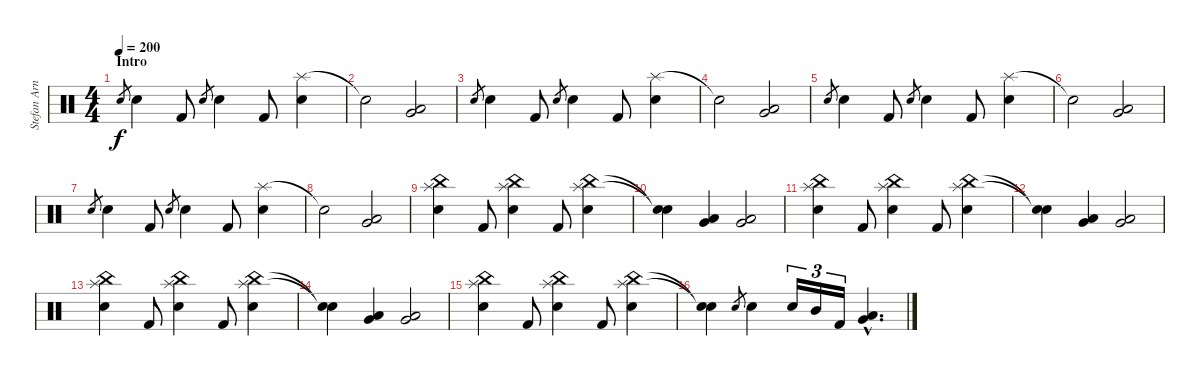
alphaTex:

\track ("Stefan Arnold" "Stefan Arn") {instrument percussion}
\staff {score}
\articulation defaults
\ts (4 4)
\section ("" "Intro")
\tempo 200
\clef neutral
\ks c "Electric Snare (hit)".8{gr dy f} "Electric Snare (hit)".4 "Kick (hit) 2".8 "Electric Snare (hit)".8{gr} "Electric Snare (hit)".4 "Kick (hit) 2".8
("Splash (hit)" "Electric Snare (hit)").4 |
"Snare (hit)"{t}.2 ("Low Floor Tom (hit)" "Very Low Tom (hit)").2 |
"Electric Snare (hit)".8{gr} "Electric Snare (hit)".4 "Kick (hit) 2".8 "Electric Snare (hit)".8{gr} "Electric Snare (hit)".4 "Kick (hit) 2".8 ("Splash (hit)" "Electric Snare (hit)").4 |
"Snare (hit)"{t}.2 ("Low Floor Tom (hit)" "Very Low Tom (hit)").2 |
"Electric Snare (hit)".8{gr} "Electric Snare (hit)".4 "Kick (hit) 2".8 "Electric Snare (hit)".8{gr} "Electric Snare (hit)".4 "Kick (hit) 2".8 ("Splash (hit)" "Electric Snare (hit)").4 |
"Snare (hit)"{t}.2 ("Low Floor Tom (hit)" "Very Low Tom (hit)").2 |
"Electric Snare (hit)".8{gr} "Electric Snare (hit)".4 "Kick (hit) 2".8 "Electric Snare (hit)".8{gr} "Electric Snare (hit)".4 "Kick (hit) 2".8 ("Splash (hit)" "Electric Snare (hit)").4 |
"Snare (hit)"{t}.2 ("Low Floor Tom (hit)" "Very Low Tom (hit)").2 |
("Splash (hit)" "China (hit)" "Electric Snare (hit)").4 "Kick (hit) 2".8 ("Splash (hit)" "China (hit)" "Electric Snare (hit)").4 "Kick (hit) 2".8 ("Splash (hit)" "China (hit)" "Electric Snare (hit)").4 |
("Snare (hit)"{t} "Snare (hit)"{t}).4 ("Low Floor Tom (hit)" "Very Low Tom (hit)").4 ("Low Floor Tom (hit)" "Very Low Tom (hit)").2 |
("Splash (hit)" "China (hit)" "Electric Snare (hit)").4 "Kick (hit) 2".8 ("Splash (hit)" "China (hit)" "Electric Snare (hit)").4 "Kick (hit) 2".8 ("Splash (hit)" "China (hit)" "Electric Snare (hit)").4 |
("Snare (hit)"{t} "Snare (hit)"{t}).4 ("Low Floor Tom (hit)" "Very Low Tom (hit)").4 ("Low Floor Tom (hit)" "Very Low Tom (hit)").2 |
("Splash (hit)" "China (hit)" "Electric Snare (hit)").4 "Kick (hit) 2".8 ("Splash (hit)" "China (hit)" "Electric Snare (hit)").4 "Kick (hit) 2".8 ("Splash (hit)" "China (hit)" "Electric Snare (hit)").4 |
("Snare (hit)"{t} "Snare (hit)"{t}).4 ("Low Floor Tom (hit)" "Very Low Tom (hit)").4 ("Low Floor Tom (hit)" "Very Low Tom (hit)").2 |
("Splash (hit)" "China (hit)" "Electric Snare (hit)").4 "Kick (hit) 2".8 ("Splash (hit)" "China (hit)" "Electric Snare (hit)").4 "Kick (hit) 2".8 ("Splash (hit)" "China (hit)" "Electric Snare (hit)").4 |
("Snare (hit)"{t} "Snare (hit)"{t}).4 "Electric Snare (hit)".8{gr} "Electric Snare (hit)".4 "Electric Snare (hit)".16{tu (3 2)} "Mid Tom (hit)".16{tu (3 2)} "Kick (hit) 2".16{tu (3 2)} ("Low Floor Tom (hit)"{hac} "Very Low Tom (hit)"{hac}).4{d}
